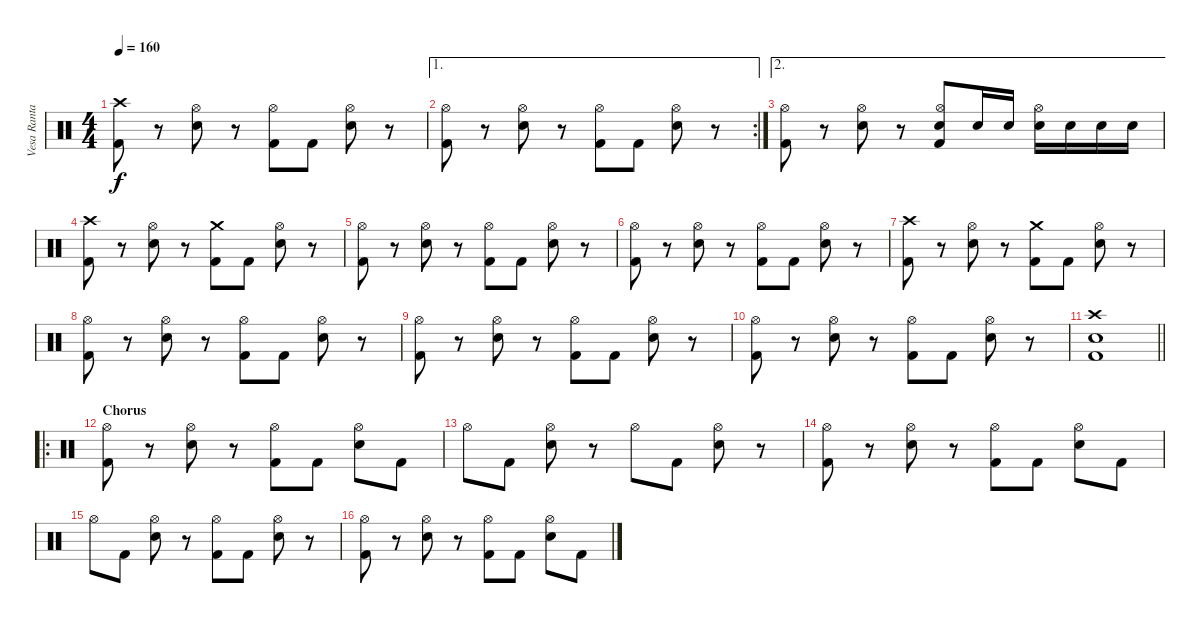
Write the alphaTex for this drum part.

\track ("Vesa Ranta" "Vesa Ranta") {instrument percussion}
\staff {score}
\articulation defaults
\ts (4 4)
\tempo 160
\clef neutral
\ks c
("Crash high (hit)" "Kick (hit) 2").8{dy f} r.8 ("Hi-Hat (open)" "Electric Snare (hit)").8 r.8 ("Hi-Hat (open)" "Kick (hit) 2").8 "Kick (hit) 2".8 ("Hi-Hat (open)" "Electric Snare (hit)").8 r.8 |
\ae 1
\rc 2
("Hi-Hat (open)" "Kick (hit) 2").8 r.8 ("Hi-Hat (open)" "Electric Snare (hit)").8 r.8 ("Hi-Hat (open)" "Kick (hit) 2").8 "Kick (hit) 2".8 ("Hi-Hat (open)" "Electric Snare (hit)").8 r.8 |
\ae 2
("Hi-Hat (open)" "Kick (hit) 2").8 r.8 ("Hi-Hat (open)" "Electric Snare (hit)").8 r.8 ("Hi-Hat (open)" "Electric Snare (hit)" "Kick (hit) 2").8 "Electric Snare (hit)".16 "Electric Snare (hit)".16 ("Hi-Hat (open)" "Electric Snare (hit)").16 "Electric Snare (hit)".16 "Electric Snare (hit)".16 "Electric Snare (hit)".16 |
("Crash high (hit)" "Kick (hit) 2").8 r.8 ("Hi-Hat (open)" "Electric Snare (hit)").8 r.8 ("Crash medium (hit)" "Kick (hit) 2").8 "Kick (hit) 2".8 ("Hi-Hat (open)" "Electric Snare (hit)").8 r.8 |
("Hi-Hat (open)" "Kick (hit) 2").8 r.8 ("Hi-Hat (open)" "Electric Snare (hit)").8 r.8 ("Hi-Hat (open)" "Kick (hit) 2").8 "Kick (hit) 2".8 ("Hi-Hat (open)" "Electric Snare (hit)").8 r.8 |
("Hi-Hat (open)" "Kick (hit) 2").8 r.8 ("Hi-Hat (open)" "Electric Snare (hit)").8 r.8 ("Hi-Hat (open)" "Kick (hit) 2").8 "Kick (hit) 2".8 ("Hi-Hat (open)" "Electric Snare (hit)").8 r.8 |
("Crash high (hit)" "Kick (hit) 2").8 r.8 ("Hi-Hat (open)" "Electric Snare (hit)").8 r.8 ("Crash medium (hit)" "Kick (hit) 2").8 "Kick (hit) 2".8 ("Hi-Hat (open)" "Electric Snare (hit)").8 r.8 |
("Hi-Hat (open)" "Kick (hit) 2").8 r.8 ("Hi-Hat (open)" "Electric Snare (hit)").8 r.8 ("Hi-Hat (open)" "Kick (hit) 2").8 "Kick (hit) 2".8 ("Hi-Hat (open)" "Electric Snare (hit)").8 r.8 |
("Hi-Hat (open)" "Kick (hit) 2").8 r.8 ("Hi-Hat (open)" "Electric Snare (hit)").8 r.8 ("Hi-Hat (open)" "Kick (hit) 2").8 "Kick (hit) 2".8 ("Hi-Hat (open)" "Electric Snare (hit)").8 r.8 |
("Hi-Hat (open)" "Kick (hit) 2").8 r.8 ("Hi-Hat (open)" "Electric Snare (hit)").8 r.8 ("Hi-Hat (open)" "Kick (hit) 2").8 "Kick (hit) 2".8 ("Hi-Hat (open)" "Electric Snare (hit)").8 r.8 |
\barLineRight lightlight
("Crash high (hit)" "Electric Snare (hit)" "Kick (hit) 2").1 |
\ro
\section ("" "Chorus")
("Hi-Hat (open)" "Kick (hit) 2").8 r.8 ("Hi-Hat (open)" "Electric Snare (hit)").8 r.8 ("Hi-Hat (open)" "Kick (hit) 2").8 "Kick (hit) 2".8 ("Hi-Hat (open)" "Electric Snare (hit)").8 "Kick (hit) 2".8 |
"Hi-Hat (open)".8 "Kick (hit) 2".8 ("Hi-Hat (open)" "Electric Snare (hit)").8 r.8 "Hi-Hat (open)".8 "Kick (hit) 2".8 ("Hi-Hat (open)" "Electric Snare (hit)").8 r.8 |
("Hi-Hat (open)" "Kick (hit) 2").8 r.8 ("Hi-Hat (open)" "Electric Snare (hit)").8 r.8 ("Hi-Hat (open)" "Kick (hit) 2").8 "Kick (hit) 2".8 ("Hi-Hat (open)" "Electric Snare (hit)").8 "Kick (hit) 2".8 |
"Hi-Hat (open)".8 "Kick (hit) 2".8 ("Hi-Hat (open)" "Electric Snare (hit)").8 r.8 ("Hi-Hat (open)" "Kick (hit) 2").8 "Kick (hit) 2".8 ("Hi-Hat (open)" "Electric Snare (hit)").8 r.8 |
("Hi-Hat (open)" "Kick (hit) 2").8 r.8 ("Hi-Hat (open)" "Electric Snare (hit)").8 r.8 ("Hi-Hat (open)" "Kick (hit) 2").8 "Kick (hit) 2".8 ("Hi-Hat (open)" "Electric Snare (hit)").8 "Kick (hit) 2".8
